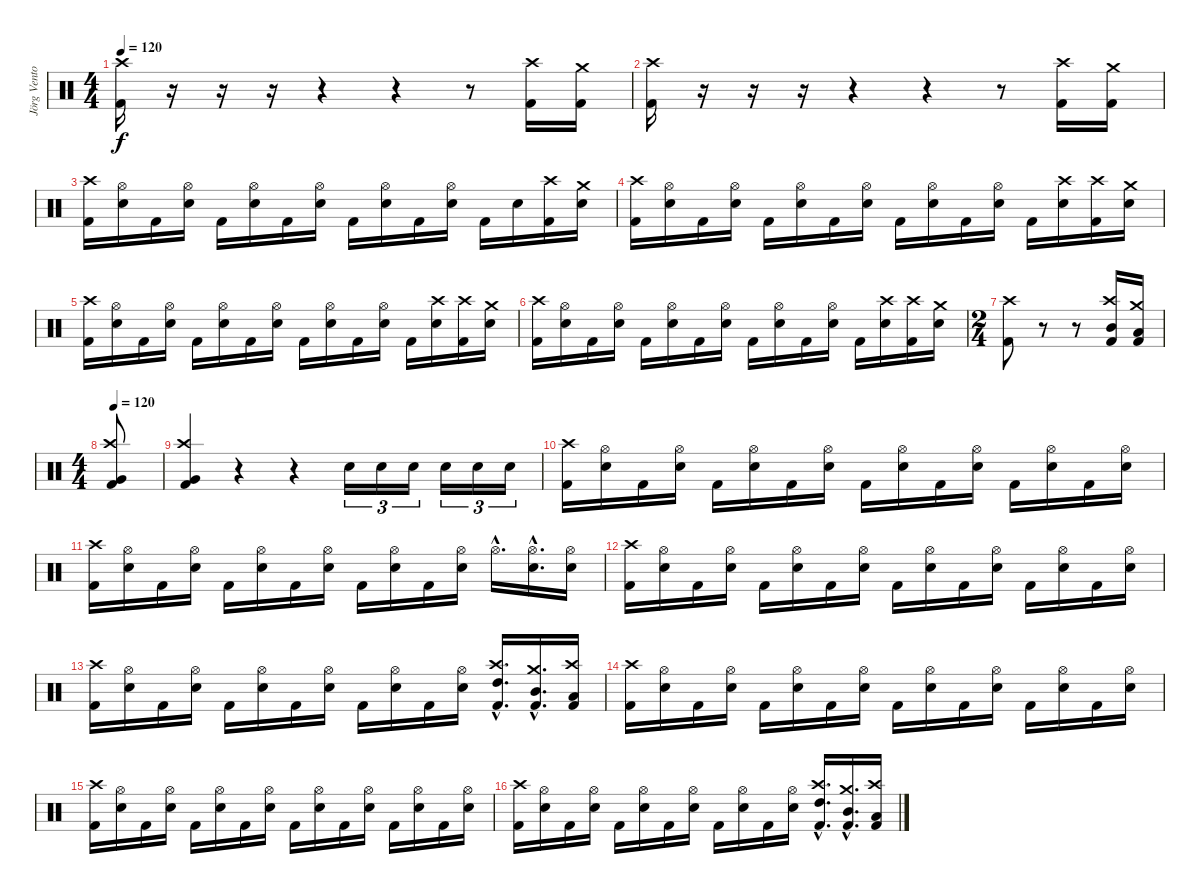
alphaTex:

\track ("Jörg Ventor" "Jörg Vento") {instrument percussion}
\staff {score}
\articulation defaults
\ts (4 4)
\tempo 120
\clef neutral
\ks c
("Kick (hit) 2" "Crash high (hit)").16{dy f} r.16 r.16 r.16 r.4 r.4 r.8 ("Kick (hit) 2" "Crash high (hit)").16 ("Kick (hit) 2" "Crash medium (hit)").16 |
("Kick (hit) 2" "Crash high (hit)").16 r.16 r.16 r.16 r.4 r.4 r.8 ("Kick (hit) 2" "Crash high (hit)").16 ("Kick (hit) 2" "Crash medium (hit)").16 |
("Crash high (hit)" "Kick (hit) 2").16 ("Hi-Hat (open)" "Snare (hit) 2").16 "Kick (hit) 2".16 ("Hi-Hat (open)" "Snare (hit) 2").16 "Kick (hit) 2".16 ("Hi-Hat (open)" "Snare (hit) 2").16 "Kick (hit) 2".16 ("Hi-Hat (open)" "Snare (hit) 2").16 "Kick (hit) 2".16 ("Hi-Hat (open)" "Snare (hit) 2").16 "Kick (hit) 2".16 ("Hi-Hat (open)" "Snare (hit) 2").16 "Kick (hit) 2".16 "Snare (hit) 2".16 ("Crash high (hit)" "Kick (hit) 2").16 ("Crash medium (hit)" "Snare (hit) 2").16 |
("Crash high (hit)" "Kick (hit) 2").16 ("Hi-Hat (open)" "Snare (hit) 2").16 "Kick (hit) 2".16 ("Hi-Hat (open)" "Snare (hit) 2").16 "Kick (hit) 2".16 ("Hi-Hat (open)" "Snare (hit) 2").16 "Kick (hit) 2".16 ("Hi-Hat (open)" "Snare (hit) 2").16 "Kick (hit) 2".16 ("Hi-Hat (open)" "Snare (hit) 2").16 "Kick (hit) 2".16 ("Hi-Hat (open)" "Snare (hit) 2").16 "Kick (hit) 2".16 ("Crash high (hit)" "Snare (hit) 2").16 ("Crash high (hit)" "Kick (hit) 2").16 ("Crash medium (hit)" "Snare (hit) 2").16 |
("Crash high (hit)" "Kick (hit) 2").16 ("Hi-Hat (open)" "Snare (hit) 2").16 "Kick (hit) 2".16 ("Hi-Hat (open)" "Snare (hit) 2").16 "Kick (hit) 2".16 ("Hi-Hat (open)" "Snare (hit) 2").16 "Kick (hit) 2".16 ("Hi-Hat (open)" "Snare (hit) 2").16 "Kick (hit) 2".16 ("Hi-Hat (open)" "Snare (hit) 2").16 "Kick (hit) 2".16 ("Hi-Hat (open)" "Snare (hit) 2").16 "Kick (hit) 2".16 ("Crash high (hit)" "Snare (hit) 2").16 ("Crash high (hit)" "Kick (hit) 2").16 ("Crash medium (hit)" "Snare (hit) 2").16 |
("Crash high (hit)" "Kick (hit) 2").16 ("Hi-Hat (open)" "Snare (hit) 2").16 "Kick (hit) 2".16 ("Hi-Hat (open)" "Snare (hit) 2").16 "Kick (hit) 2".16 ("Hi-Hat (open)" "Snare (hit) 2").16 "Kick (hit) 2".16 ("Hi-Hat (open)" "Snare (hit) 2").16 "Kick (hit) 2".16 ("Hi-Hat (open)" "Snare (hit) 2").16 "Kick (hit) 2".16 ("Hi-Hat (open)" "Snare (hit) 2").16 "Kick (hit) 2".16 ("Crash high (hit)" "Snare (hit) 2").16 ("Crash high (hit)" "Kick (hit) 2").16 ("Crash medium (hit)" "Snare (hit) 2").16 |
\ts (2 4)
("Kick (hit) 2" "Crash high (hit)").8 r.8 r.8 ("Crash high (hit)" "Kick (hit) 2" "Mid Tom (hit)").16 ("Crash medium (hit)" "Kick (hit) 2" "Low Tom (hit)").16 |
\ts (4 4)
\tempo 120
("Crash high (hit)" "Kick (hit) 2" "Very Low Tom (hit)").8 |
("Crash high (hit)" "Kick (hit) 2" "Very Low Tom (hit)").4 r.4 r.4 "Snare (hit) 2".16{tu (3 2)} "Snare (hit) 2".16{tu (3 2)} "Snare (hit) 2".16{tu (3 2)} "Snare (hit) 2".16{tu (3 2)} "Snare (hit) 2".16{tu (3 2)} "Snare (hit) 2".16{tu (3 2)} |
("Crash high (hit)" "Kick (hit) 2").16 ("Hi-Hat (open)" "Snare (hit) 2").16 "Kick (hit) 2".16 ("Hi-Hat (open)" "Snare (hit) 2").16 "Kick (hit) 2".16 ("Hi-Hat (open)" "Snare (hit) 2").16 "Kick (hit) 2".16 ("Hi-Hat (open)" "Snare (hit) 2").16 "Kick (hit) 2".16 ("Hi-Hat (open)" "Snare (hit) 2").16 "Kick (hit) 2".16 ("Hi-Hat (open)" "Snare (hit) 2").16 "Kick (hit) 2".16 ("Hi-Hat (open)" "Snare (hit) 2").16 "Kick (hit) 2".16 ("Hi-Hat (open)" "Snare (hit) 2").16 |
("Crash high (hit)" "Kick (hit) 2").16 ("Hi-Hat (open)" "Snare (hit) 2").16 "Kick (hit) 2".16 ("Hi-Hat (open)" "Snare (hit) 2").16 "Kick (hit) 2".16 ("Hi-Hat (open)" "Snare (hit) 2").16 "Kick (hit) 2".16 ("Hi-Hat (open)" "Snare (hit) 2").16 "Kick (hit) 2".16 ("Hi-Hat (open)" "Snare (hit) 2").16 "Kick (hit) 2".16 ("Hi-Hat (open)" "Snare (hit) 2").16 "Hi-Hat (open)"{hac}.16{d} ("Hi-Hat (open)"{hac} "Snare (hit) 2"{hac}).16{d} ("Hi-Hat (open)" "Snare (hit) 2").16 |
("Crash high (hit)" "Kick (hit) 2").16 ("Hi-Hat (open)" "Snare (hit) 2").16 "Kick (hit) 2".16 ("Hi-Hat (open)" "Snare (hit) 2").16 "Kick (hit) 2".16 ("Hi-Hat (open)" "Snare (hit) 2").16 "Kick (hit) 2".16 ("Hi-Hat (open)" "Snare (hit) 2").16 "Kick (hit) 2".16 ("Hi-Hat (open)" "Snare (hit) 2").16 "Kick (hit) 2".16 ("Hi-Hat (open)" "Snare (hit) 2").16 "Kick (hit) 2".16 ("Hi-Hat (open)" "Snare (hit) 2").16 "Kick (hit) 2".16 ("Hi-Hat (open)" "Snare (hit) 2").16 |
("Crash high (hit)" "Kick (hit) 2").16 ("Hi-Hat (open)" "Snare (hit) 2").16 "Kick (hit) 2".16 ("Hi-Hat (open)" "Snare (hit) 2").16 "Kick (hit) 2".16 ("Hi-Hat (open)" "Snare (hit) 2").16 "Kick (hit) 2".16 ("Hi-Hat (open)" "Snare (hit) 2").16 "Kick (hit) 2".16 ("Hi-Hat (open)" "Snare (hit) 2").16 "Kick (hit) 2".16 ("Hi-Hat (open)" "Snare (hit) 2").16 ("High Tom (hit)"{hac} "Kick (hit) 2"{hac} "Crash high (hit)"{hac}).16{d} ("Mid Tom (hit)"{hac} "Kick (hit) 2"{hac} "Crash medium (hit)"{hac}).16{d} ("Low Tom (hit)" "Kick (hit) 2" "Crash high (hit)").16 |
("Crash high (hit)" "Kick (hit) 2").16 ("Hi-Hat (open)" "Snare (hit) 2").16 "Kick (hit) 2".16 ("Hi-Hat (open)" "Snare (hit) 2").16 "Kick (hit) 2".16 ("Hi-Hat (open)" "Snare (hit) 2").16 "Kick (hit) 2".16 ("Hi-Hat (open)" "Snare (hit) 2").16 "Kick (hit) 2".16 ("Hi-Hat (open)" "Snare (hit) 2").16 "Kick (hit) 2".16 ("Hi-Hat (open)" "Snare (hit) 2").16 "Kick (hit) 2".16 ("Hi-Hat (open)" "Snare (hit) 2").16 "Kick (hit) 2".16 ("Hi-Hat (open)" "Snare (hit) 2").16 |
("Crash high (hit)" "Kick (hit) 2").16 ("Hi-Hat (open)" "Snare (hit) 2").16 "Kick (hit) 2".16 ("Hi-Hat (open)" "Snare (hit) 2").16 "Kick (hit) 2".16 ("Hi-Hat (open)" "Snare (hit) 2").16 "Kick (hit) 2".16 ("Hi-Hat (open)" "Snare (hit) 2").16 "Kick (hit) 2".16 ("Hi-Hat (open)" "Snare (hit) 2").16 "Kick (hit) 2".16 ("Hi-Hat (open)" "Snare (hit) 2").16 "Kick (hit) 2".16 ("Hi-Hat (open)" "Snare (hit) 2").16 "Kick (hit) 2".16 ("Hi-Hat (open)" "Snare (hit) 2").16 |
("Crash high (hit)" "Kick (hit) 2").16 ("Hi-Hat (open)" "Snare (hit) 2").16 "Kick (hit) 2".16 ("Hi-Hat (open)" "Snare (hit) 2").16 "Kick (hit) 2".16 ("Hi-Hat (open)" "Snare (hit) 2").16 "Kick (hit) 2".16 ("Hi-Hat (open)" "Snare (hit) 2").16 "Kick (hit) 2".16 ("Hi-Hat (open)" "Snare (hit) 2").16 "Kick (hit) 2".16 ("Hi-Hat (open)" "Snare (hit) 2").16 ("High Tom (hit)"{hac} "Kick (hit) 2"{hac} "Crash high (hit)"{hac}).16{d} ("Mid Tom (hit)"{hac} "Kick (hit) 2"{hac} "Crash medium (hit)"{hac}).16{d} ("Low Tom (hit)" "Kick (hit) 2" "Crash high (hit)").16
